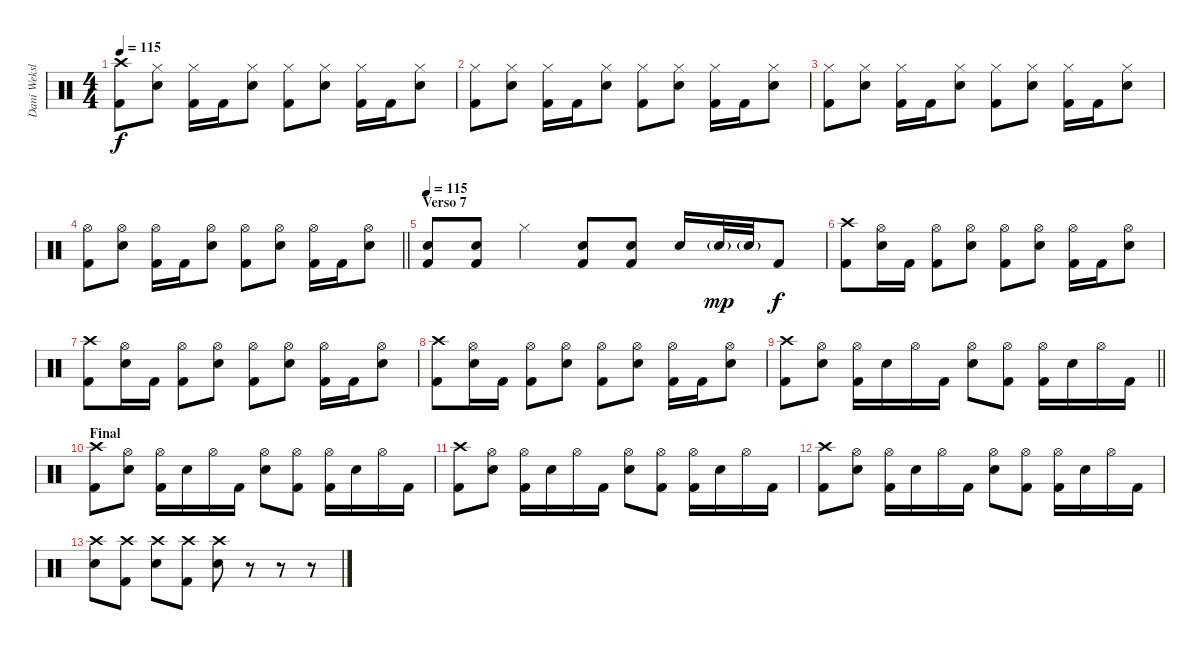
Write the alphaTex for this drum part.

\track ("Dani Weksler" "Dani Weksl") {instrument percussion}
\staff {score}
\articulation defaults
\ts (4 4)
\tempo 115
\clef neutral
\ks c
("Crash high (hit)" "Kick (hit) 2").8{dy f} ("Hi-Hat (closed)" "Electric Snare (hit)").8 ("Hi-Hat (closed)" "Kick (hit) 2").16 "Kick (hit) 2".16 ("Hi-Hat (closed)" "Electric Snare (hit)").8 ("Hi-Hat (closed)" "Kick (hit) 2").8 ("Hi-Hat (closed)" "Electric Snare (hit)").8 ("Hi-Hat (closed)" "Kick (hit) 2").16 "Kick (hit) 2".16 ("Hi-Hat (closed)" "Electric Snare (hit)").8 |
("Hi-Hat (closed)" "Kick (hit) 2").8 ("Hi-Hat (closed)" "Electric Snare (hit)").8 ("Hi-Hat (closed)" "Kick (hit) 2").16 "Kick (hit) 2".16 ("Hi-Hat (closed)" "Electric Snare (hit)").8 ("Hi-Hat (closed)" "Kick (hit) 2").8 ("Hi-Hat (closed)" "Electric Snare (hit)").8 ("Hi-Hat (closed)" "Kick (hit) 2").16 "Kick (hit) 2".16 ("Hi-Hat (closed)" "Electric Snare (hit)").8 |
("Hi-Hat (closed)" "Kick (hit) 2").8 ("Hi-Hat (closed)" "Electric Snare (hit)").8 ("Hi-Hat (closed)" "Kick (hit) 2").16 "Kick (hit) 2".16 ("Hi-Hat (closed)" "Electric Snare (hit)").8 ("Hi-Hat (closed)" "Kick (hit) 2").8 ("Hi-Hat (closed)" "Electric Snare (hit)").8 ("Hi-Hat (closed)" "Kick (hit) 2").16 "Kick (hit) 2".16 ("Hi-Hat (closed)" "Electric Snare (hit)").8 |
\barLineRight lightlight
("Hi-Hat (open)" "Kick (hit) 2").8 ("Hi-Hat (open)" "Electric Snare (hit)").8 ("Hi-Hat (open)" "Kick (hit) 2").16 "Kick (hit) 2".16 ("Hi-Hat (open)" "Electric Snare (hit)").8 ("Hi-Hat (open)" "Kick (hit) 2").8 ("Hi-Hat (open)" "Electric Snare (hit)").8 ("Hi-Hat (open)" "Kick (hit) 2").16 "Kick (hit) 2".16 ("Hi-Hat (open)" "Electric Snare (hit)").8 |
\section ("" "Verso 7")
\tempo 115
("Electric Snare (hit)" "Kick (hit) 2").8 ("Electric Snare (hit)" "Kick (hit) 2").8 "Hi-Hat (closed)".4 ("Electric Snare (hit)" "Kick (hit) 2").8 ("Electric Snare (hit)" "Kick (hit) 2").8 "Electric Snare (hit)".16 "Electric Snare (hit)"{g}.32{dy mp} "Electric Snare (hit)"{g}.32 "Kick (hit) 2".8{dy f} |
("Crash high (hit)" "Kick (hit) 2").8 ("Hi-Hat (open)" "Electric Snare (hit)").16 "Kick (hit) 2".16 ("Hi-Hat (open)" "Kick (hit) 2").8 ("Hi-Hat (open)" "Electric Snare (hit)").8 ("Hi-Hat (open)" "Kick (hit) 2").8 ("Hi-Hat (open)" "Electric Snare (hit)").8 ("Hi-Hat (open)" "Kick (hit) 2").16 "Kick (hit) 2".16 ("Hi-Hat (open)" "Electric Snare (hit)").8 |
("Crash high (hit)" "Kick (hit) 2").8 ("Hi-Hat (open)" "Electric Snare (hit)").16 "Kick (hit) 2".16 ("Hi-Hat (open)" "Kick (hit) 2").8 ("Hi-Hat (open)" "Electric Snare (hit)").8 ("Hi-Hat (open)" "Kick (hit) 2").8 ("Hi-Hat (open)" "Electric Snare (hit)").8 ("Hi-Hat (open)" "Kick (hit) 2").16 "Kick (hit) 2".16 ("Hi-Hat (open)" "Electric Snare (hit)").8 |
("Crash high (hit)" "Kick (hit) 2").8 ("Hi-Hat (open)" "Electric Snare (hit)").16 "Kick (hit) 2".16 ("Hi-Hat (open)" "Kick (hit) 2").8 ("Hi-Hat (open)" "Electric Snare (hit)").8 ("Hi-Hat (open)" "Kick (hit) 2").8 ("Hi-Hat (open)" "Electric Snare (hit)").8 ("Hi-Hat (open)" "Kick (hit) 2").16 "Kick (hit) 2".16 ("Hi-Hat (open)" "Electric Snare (hit)").8 |
\barLineRight lightlight
("Crash high (hit)" "Kick (hit) 2").8 ("Hi-Hat (open)" "Electric Snare (hit)").8 ("Hi-Hat (open)" "Kick (hit) 2").16 "Electric Snare (hit)".16 "Hi-Hat (open)".16 "Kick (hit) 2".16 ("Hi-Hat (open)" "Electric Snare (hit)").8 ("Hi-Hat (open)" "Kick (hit) 2").8 ("Hi-Hat (open)" "Kick (hit) 2").16 "Electric Snare (hit)".16 "Hi-Hat (open)".16 "Kick (hit) 2".16 |
\section ("" "Final")
("Crash high (hit)" "Kick (hit) 2").8 ("Hi-Hat (open)" "Electric Snare (hit)").8 ("Hi-Hat (open)" "Kick (hit) 2").16 "Electric Snare (hit)".16 "Hi-Hat (open)".16 "Kick (hit) 2".16 ("Hi-Hat (open)" "Electric Snare (hit)").8 ("Hi-Hat (open)" "Kick (hit) 2").8 ("Hi-Hat (open)" "Kick (hit) 2").16 "Electric Snare (hit)".16 "Hi-Hat (open)".16 "Kick (hit) 2".16 |
("Crash high (hit)" "Kick (hit) 2").8 ("Hi-Hat (open)" "Electric Snare (hit)").8 ("Hi-Hat (open)" "Kick (hit) 2").16 "Electric Snare (hit)".16 "Hi-Hat (open)".16 "Kick (hit) 2".16 ("Hi-Hat (open)" "Electric Snare (hit)").8 ("Hi-Hat (open)" "Kick (hit) 2").8 ("Hi-Hat (open)" "Kick (hit) 2").16 "Electric Snare (hit)".16 "Hi-Hat (open)".16 "Kick (hit) 2".16 |
("Crash high (hit)" "Kick (hit) 2").8 ("Hi-Hat (open)" "Electric Snare (hit)").8 ("Hi-Hat (open)" "Kick (hit) 2").16 "Electric Snare (hit)".16 "Hi-Hat (open)".16 "Kick (hit) 2".16 ("Hi-Hat (open)" "Electric Snare (hit)").8 ("Hi-Hat (open)" "Kick (hit) 2").8 ("Hi-Hat (open)" "Kick (hit) 2").16 "Electric Snare (hit)".16 "Hi-Hat (open)".16 "Kick (hit) 2".16 |
("Crash high (hit)" "Electric Snare (hit)").8 ("Crash high (hit)" "Kick (hit) 2").8 ("Crash high (hit)" "Electric Snare (hit)").8 ("Crash high (hit)" "Kick (hit) 2").8 ("Crash high (hit)" "Electric Snare (hit)").8 r.8 r.8 r.8
